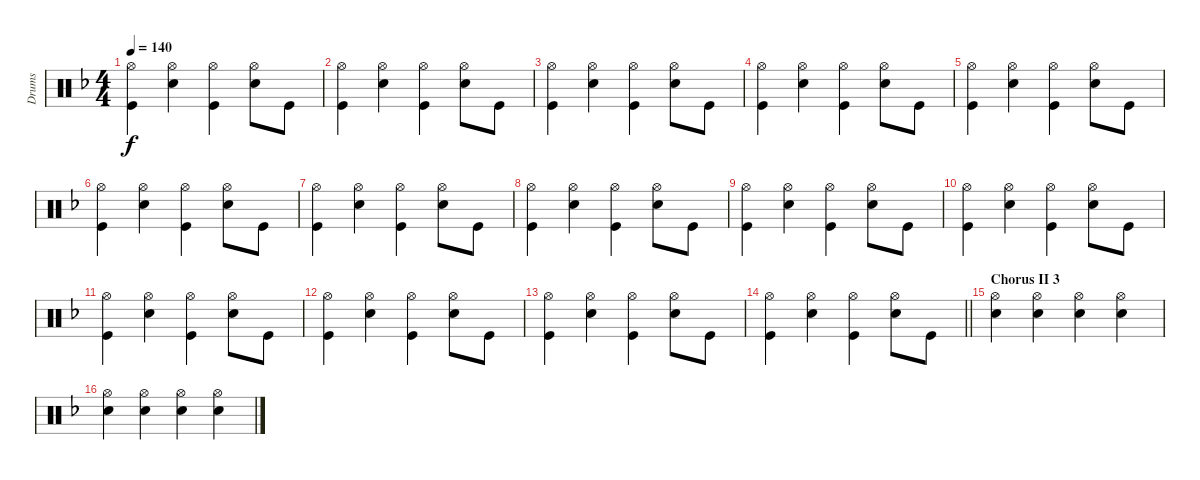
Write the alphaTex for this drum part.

\track ("Drums" "Drums") {instrument percussion}
\staff {score}
\articulation defaults
\ts (4 4)
\tempo 140
\clef neutral
\ks f
("Hi-Hat (open)" "Kick (hit)").4{dy f} ("Hi-Hat (open)" "Snare (hit) 2").4 ("Hi-Hat (open)" "Kick (hit)").4 ("Hi-Hat (open)" "Snare (hit) 2").8 "Kick (hit)".8 |
("Hi-Hat (open)" "Kick (hit)").4 ("Hi-Hat (open)" "Snare (hit) 2").4 ("Hi-Hat (open)" "Kick (hit)").4 ("Hi-Hat (open)" "Snare (hit) 2").8 "Kick (hit)".8 |
("Hi-Hat (open)" "Kick (hit)").4 ("Hi-Hat (open)" "Snare (hit) 2").4 ("Hi-Hat (open)" "Kick (hit)").4 ("Hi-Hat (open)" "Snare (hit) 2").8 "Kick (hit)".8 |
("Hi-Hat (open)" "Kick (hit)").4 ("Hi-Hat (open)" "Snare (hit) 2").4 ("Hi-Hat (open)" "Kick (hit)").4 ("Hi-Hat (open)" "Snare (hit) 2").8 "Kick (hit)".8 |
("Hi-Hat (open)" "Kick (hit)").4 ("Hi-Hat (open)" "Snare (hit) 2").4 ("Hi-Hat (open)" "Kick (hit)").4 ("Hi-Hat (open)" "Snare (hit) 2").8 "Kick (hit)".8 |
("Hi-Hat (open)" "Kick (hit)").4 ("Hi-Hat (open)" "Snare (hit) 2").4 ("Hi-Hat (open)" "Kick (hit)").4 ("Hi-Hat (open)" "Snare (hit) 2").8 "Kick (hit)".8 |
("Hi-Hat (open)" "Kick (hit)").4 ("Hi-Hat (open)" "Snare (hit) 2").4 ("Hi-Hat (open)" "Kick (hit)").4 ("Hi-Hat (open)" "Snare (hit) 2").8 "Kick (hit)".8 |
("Hi-Hat (open)" "Kick (hit)").4 ("Hi-Hat (open)" "Snare (hit) 2").4 ("Hi-Hat (open)" "Kick (hit)").4 ("Hi-Hat (open)" "Snare (hit) 2").8 "Kick (hit)".8 |
("Hi-Hat (open)" "Kick (hit)").4 ("Hi-Hat (open)" "Snare (hit) 2").4 ("Hi-Hat (open)" "Kick (hit)").4 ("Hi-Hat (open)" "Snare (hit) 2").8 "Kick (hit)".8 |
("Hi-Hat (open)" "Kick (hit)").4 ("Hi-Hat (open)" "Snare (hit) 2").4 ("Hi-Hat (open)" "Kick (hit)").4 ("Hi-Hat (open)" "Snare (hit) 2").8 "Kick (hit)".8 |
("Hi-Hat (open)" "Kick (hit)").4 ("Hi-Hat (open)" "Snare (hit) 2").4 ("Hi-Hat (open)" "Kick (hit)").4 ("Hi-Hat (open)" "Snare (hit) 2").8 "Kick (hit)".8 |
("Hi-Hat (open)" "Kick (hit)").4 ("Hi-Hat (open)" "Snare (hit) 2").4 ("Hi-Hat (open)" "Kick (hit)").4 ("Hi-Hat (open)" "Snare (hit) 2").8 "Kick (hit)".8 |
("Hi-Hat (open)" "Kick (hit)").4 ("Hi-Hat (open)" "Snare (hit) 2").4 ("Hi-Hat (open)" "Kick (hit)").4 ("Hi-Hat (open)" "Snare (hit) 2").8 "Kick (hit)".8 |
\barLineRight lightlight
("Hi-Hat (open)" "Kick (hit)").4 ("Hi-Hat (open)" "Snare (hit) 2").4 ("Hi-Hat (open)" "Kick (hit)").4 ("Hi-Hat (open)" "Snare (hit) 2").8 "Kick (hit)".8 |
\section ("" "Chorus II 3")
("Hi-Hat (open)" "Snare (hit) 2").4 ("Hi-Hat (open)" "Snare (hit) 2").4 ("Hi-Hat (open)" "Snare (hit) 2").4 ("Hi-Hat (open)" "Snare (hit) 2").4 |
("Hi-Hat (open)" "Snare (hit) 2").4 ("Hi-Hat (open)" "Snare (hit) 2").4 ("Hi-Hat (open)" "Snare (hit) 2").4 ("Hi-Hat (open)" "Snare (hit) 2").4
